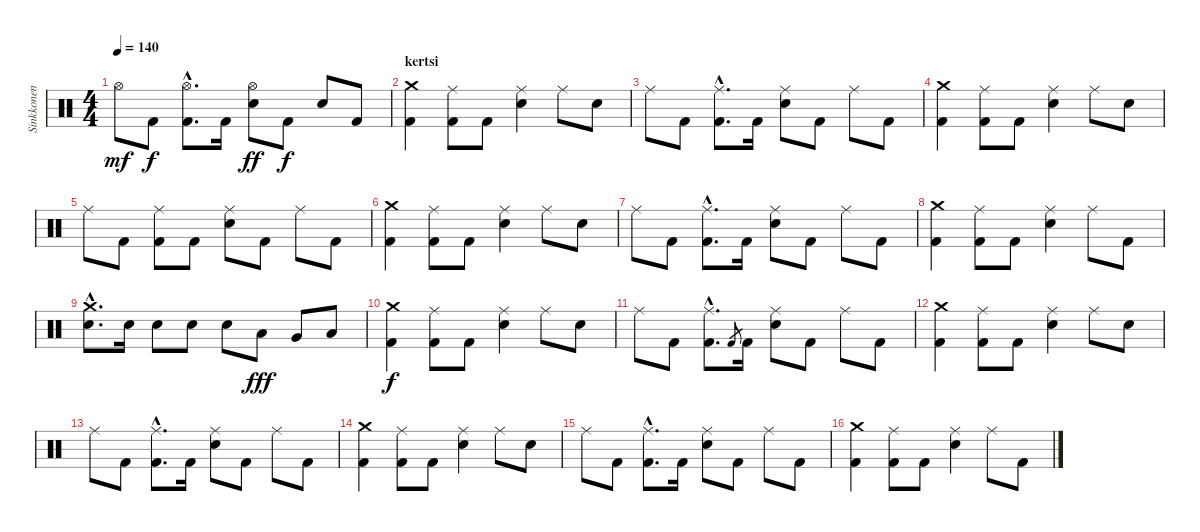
\track ("Sinkkonen" "Sinkkonen") {instrument percussion}
\staff {score}
\articulation defaults
\ts (4 4)
\tempo 140
\clef neutral
\ks c "Hi-Hat (open)".8{dy mf} "Kick (hit) 2".8{dy f}
("Kick (hit) 2"{hac} "Hi-Hat (open)"{hac}).8{d} "Kick (hit) 2".16 ("Hi-Hat (open)" "Snare (hit) 2").8{dy ff} "Kick (hit) 2".8{dy f} "Snare (hit) 2".8 "Kick (hit) 2".8 |
\section ("" "kertsi")
("Kick (hit) 2" "Crash medium (hit)").4 ("Kick (hit) 2" "Ride (middle)").8 "Kick (hit) 2".8 ("Ride (middle)" "Snare (hit) 2").4 "Ride (middle)".8 "Snare (hit) 2".8 |
"Ride (middle)".8 "Kick (hit) 2".8 ("Kick (hit) 2"{hac} "Ride (middle)"{hac}).8{d} "Kick (hit) 2".16 ("Ride (middle)" "Snare (hit) 2").8 "Kick (hit) 2".8 "Ride (middle)".8 "Kick (hit) 2".8 |
("Kick (hit) 2" "Crash medium (hit)").4 ("Kick (hit) 2" "Ride (middle)").8 "Kick (hit) 2".8 ("Ride (middle)" "Snare (hit) 2").4 "Ride (middle)".8 "Snare (hit) 2".8 |
"Ride (middle)".8 "Kick (hit) 2".8 ("Kick (hit) 2" "Ride (middle)").8 "Kick (hit) 2".8 ("Ride (middle)" "Snare (hit) 2").8 "Kick (hit) 2".8 "Ride (middle)".8 "Kick (hit) 2".8 |
("Kick (hit) 2" "Crash medium (hit)").4 ("Kick (hit) 2" "Ride (middle)").8 "Kick (hit) 2".8 ("Ride (middle)" "Snare (hit) 2").4 "Ride (middle)".8 "Snare (hit) 2".8 |
"Ride (middle)".8 "Kick (hit) 2".8 ("Kick (hit) 2"{hac} "Ride (middle)"{hac}).8{d} "Kick (hit) 2".16 ("Ride (middle)" "Snare (hit) 2").8 "Kick (hit) 2".8 "Ride (middle)".8 "Kick (hit) 2".8 |
("Kick (hit) 2" "Crash medium (hit)").4 ("Kick (hit) 2" "Ride (middle)").8 "Kick (hit) 2".8 ("Ride (middle)" "Snare (hit) 2").4 "Ride (middle)".8 "Kick (hit) 2".8 |
("Crash medium (hit)"{hac} "Snare (hit) 2"{hac}).8{d} "Snare (hit) 2".16 "Snare (hit) 2".8 "Snare (hit) 2".8 "Snare (hit) 2".8 "Low Tom (hit)".8{dy fff} "Very Low Tom (hit)".8 "Low Floor Tom (hit)".8 |
("Kick (hit) 2" "Crash medium (hit)").4{dy f} ("Kick (hit) 2" "Ride (middle)").8 "Kick (hit) 2".8 ("Ride (middle)" "Snare (hit) 2").4 "Ride (middle)".8 "Snare (hit) 2".8 |
"Ride (middle)".8 "Kick (hit) 2".8 ("Kick (hit) 2"{hac} "Ride (middle)"{hac}).8{d} "Kick (hit) 2".8{gr} "Kick (hit) 2".16 ("Ride (middle)" "Snare (hit) 2").8 "Kick (hit) 2".8 "Ride (middle)".8 "Kick (hit) 2".8 |
("Kick (hit) 2" "Crash medium (hit)").4 ("Kick (hit) 2" "Ride (middle)").8 "Kick (hit) 2".8 ("Ride (middle)" "Snare (hit) 2").4 "Ride (middle)".8 "Snare (hit) 2".8 |
"Ride (middle)".8 "Kick (hit) 2".8 ("Kick (hit) 2"{hac} "Ride (middle)"{hac}).8{d} "Kick (hit) 2".16 ("Ride (middle)" "Snare (hit) 2").8 "Kick (hit) 2".8 "Ride (middle)".8 "Kick (hit) 2".8 |
("Kick (hit) 2" "Crash medium (hit)").4 ("Kick (hit) 2" "Ride (middle)").8 "Kick (hit) 2".8 ("Ride (middle)" "Snare (hit) 2").4 "Ride (middle)".8 "Snare (hit) 2".8 |
"Ride (middle)".8 "Kick (hit) 2".8 ("Kick (hit) 2"{hac} "Ride (middle)"{hac}).8{d} "Kick (hit) 2".16 ("Ride (middle)" "Snare (hit) 2").8 "Kick (hit) 2".8 "Ride (middle)".8 "Kick (hit) 2".8 |
("Kick (hit) 2" "Crash medium (hit)").4 ("Kick (hit) 2" "Ride (middle)").8 "Kick (hit) 2".8 ("Ride (middle)" "Snare (hit) 2").4 "Ride (middle)".8 "Kick (hit) 2".8
